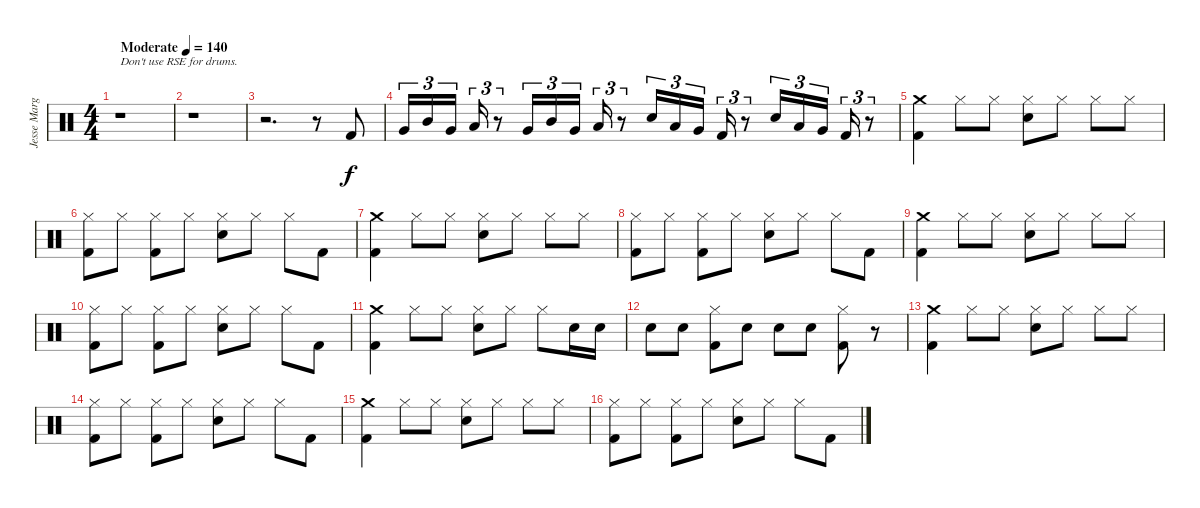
\track ("Jesse Margera" "Jesse Marg") {instrument percussion}
\staff {score}
\articulation defaults
\ts (4 4)
\tempo (140 "Moderate")
\clef neutral
\ks c
r.1{txt "Don't use RSE for drums." dy f} |
r.1 |
r.2{d} r.8 "Kick (hit) 2".8 |
"Very Low Tom (hit)".16{tu (3 2)} "Mid Tom (hit)".16{tu (3 2)} "Very Low Tom (hit)".16{tu (3 2) beam splitsecondary} "Low Tom (hit)".16{tu (3 2)} r.8{tu (3 2)} "Very Low Tom (hit)".16{tu (3 2)} "Mid Tom (hit)".16{tu (3 2)} "Very Low Tom (hit)".16{tu (3 2) beam splitsecondary} "Low Tom (hit)".16{tu (3 2)} r.8{tu (3 2)} "Electric Snare (hit)".16{tu (3 2)} "Low Tom (hit)".16{tu (3 2)} "Very Low Tom (hit)".16{tu (3 2) beam splitsecondary} "Kick (hit) 2".16{tu (3 2)} r.8{tu (3 2)} "Electric Snare (hit)".16{tu (3 2)} "Low Tom (hit)".16{tu (3 2)} "Very Low Tom (hit)".16{tu (3 2) beam splitsecondary} "Kick (hit) 2".16{tu (3 2)} r.8{tu (3 2)} |
("Crash medium (hit)" "Kick (hit) 2").4 "Hi-Hat (closed)".8 "Hi-Hat (closed)".8 ("Hi-Hat (closed)" "Electric Snare (hit)").8 "Hi-Hat (closed)".8 "Hi-Hat (closed)".8 "Hi-Hat (closed)".8 |
("Hi-Hat (closed)" "Kick (hit) 2").8 "Hi-Hat (closed)".8 ("Hi-Hat (closed)" "Kick (hit) 2").8 "Hi-Hat (closed)".8 ("Hi-Hat (closed)" "Electric Snare (hit)").8 "Hi-Hat (closed)".8 "Hi-Hat (closed)".8 "Kick (hit) 2".8 |
("Crash medium (hit)" "Kick (hit) 2").4 "Hi-Hat (closed)".8 "Hi-Hat (closed)".8 ("Hi-Hat (closed)" "Electric Snare (hit)").8 "Hi-Hat (closed)".8 "Hi-Hat (closed)".8 "Hi-Hat (closed)".8 |
("Hi-Hat (closed)" "Kick (hit) 2").8 "Hi-Hat (closed)".8 ("Hi-Hat (closed)" "Kick (hit) 2").8 "Hi-Hat (closed)".8 ("Hi-Hat (closed)" "Electric Snare (hit)").8 "Hi-Hat (closed)".8 "Hi-Hat (closed)".8 "Kick (hit) 2".8 |
("Crash medium (hit)" "Kick (hit) 2").4 "Hi-Hat (closed)".8 "Hi-Hat (closed)".8 ("Hi-Hat (closed)" "Electric Snare (hit)").8 "Hi-Hat (closed)".8 "Hi-Hat (closed)".8 "Hi-Hat (closed)".8 |
("Hi-Hat (closed)" "Kick (hit) 2").8 "Hi-Hat (closed)".8 ("Hi-Hat (closed)" "Kick (hit) 2").8 "Hi-Hat (closed)".8 ("Hi-Hat (closed)" "Electric Snare (hit)").8 "Hi-Hat (closed)".8 "Hi-Hat (closed)".8 "Kick (hit) 2".8 |
("Crash medium (hit)" "Kick (hit) 2").4 "Hi-Hat (closed)".8 "Hi-Hat (closed)".8 ("Hi-Hat (closed)" "Electric Snare (hit)").8 "Hi-Hat (closed)".8 "Hi-Hat (closed)".8 "Electric Snare (hit)".16 "Electric Snare (hit)".16 |
"Electric Snare (hit)".8 "Electric Snare (hit)".8 ("Hi-Hat (closed)" "Kick (hit) 2").8 "Electric Snare (hit)".8 "Electric Snare (hit)".8 "Electric Snare (hit)".8 ("Hi-Hat (closed)" "Kick (hit) 2").8 r.8 |
("Crash medium (hit)" "Kick (hit) 2").4 "Hi-Hat (closed)".8 "Hi-Hat (closed)".8 ("Hi-Hat (closed)" "Electric Snare (hit)").8 "Hi-Hat (closed)".8 "Hi-Hat (closed)".8 "Hi-Hat (closed)".8 |
("Hi-Hat (closed)" "Kick (hit) 2").8 "Hi-Hat (closed)".8 ("Hi-Hat (closed)" "Kick (hit) 2").8 "Hi-Hat (closed)".8 ("Hi-Hat (closed)" "Electric Snare (hit)").8 "Hi-Hat (closed)".8 "Hi-Hat (closed)".8 "Kick (hit) 2".8 |
("Crash medium (hit)" "Kick (hit) 2").4 "Hi-Hat (closed)".8 "Hi-Hat (closed)".8 ("Hi-Hat (closed)" "Electric Snare (hit)").8 "Hi-Hat (closed)".8 "Hi-Hat (closed)".8 "Hi-Hat (closed)".8 |
("Hi-Hat (closed)" "Kick (hit) 2").8 "Hi-Hat (closed)".8 ("Hi-Hat (closed)" "Kick (hit) 2").8 "Hi-Hat (closed)".8 ("Hi-Hat (closed)" "Electric Snare (hit)").8 "Hi-Hat (closed)".8 "Hi-Hat (closed)".8 "Kick (hit) 2".8
